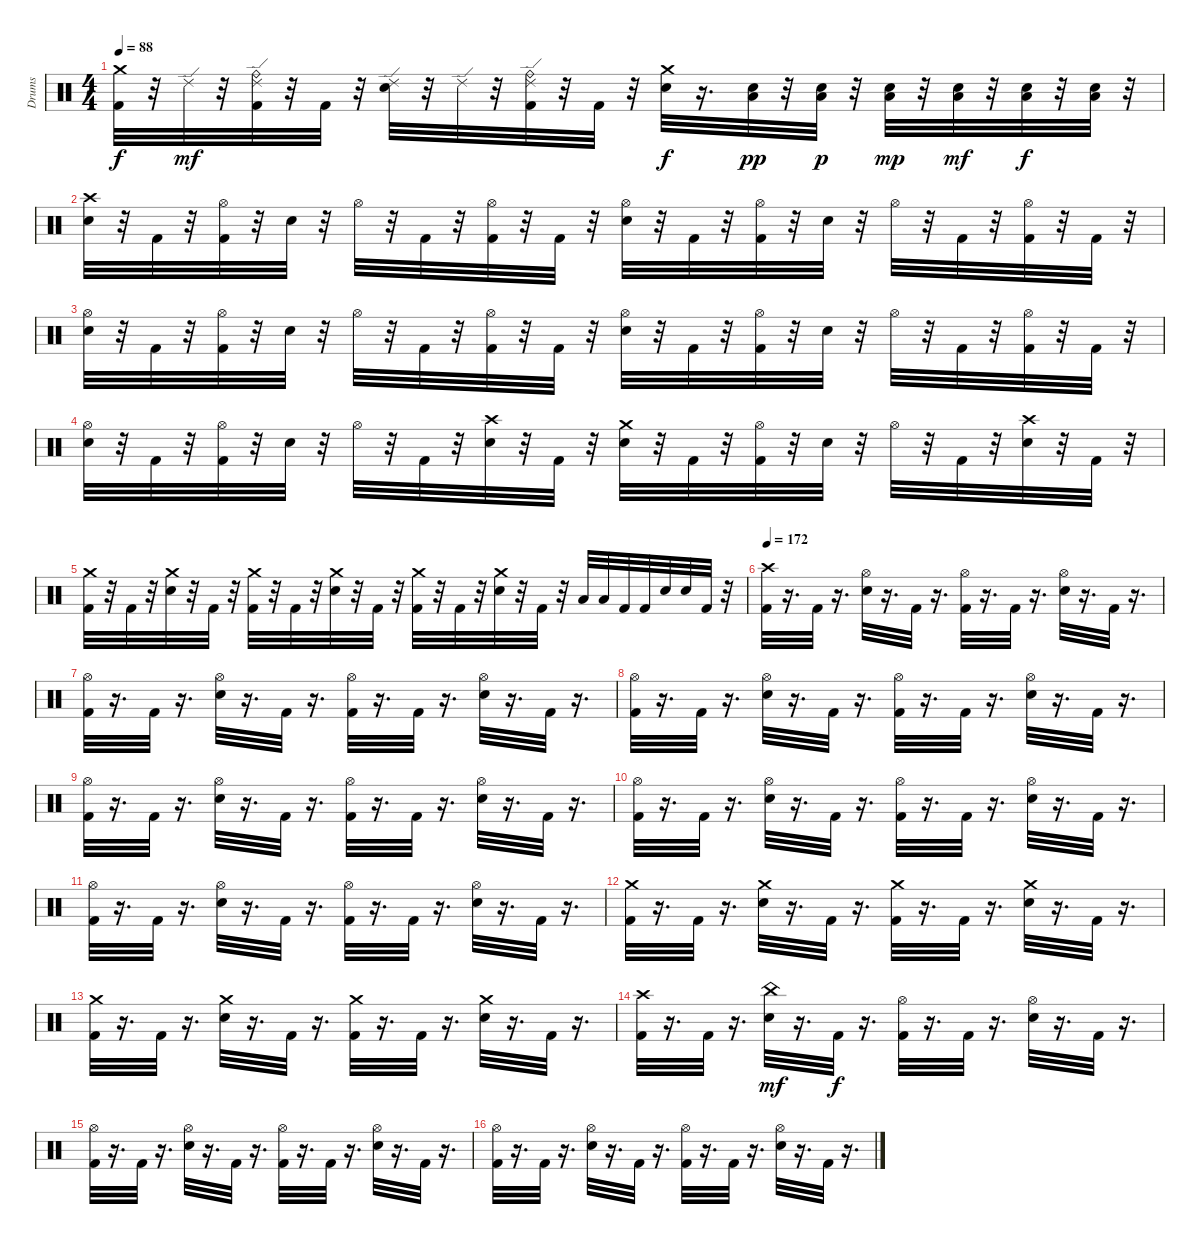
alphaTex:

\track ("Drums" "Drums") {instrument percussion}
\staff {score}
\articulation defaults
\ts (4 4)
\tempo 88
\clef neutral
\ks c
("Crash medium (hit)" "Kick (hit) 2").32{dy f} r.32 "Ride (edge) 2".32{dy mf} r.32 ("Ride (bell)" "Ride (edge) 2" "Kick (hit) 2").32 r.32 "Kick (hit) 2".32 r.32 ("Ride (edge) 2" "Snare (hit) 2").32 r.32 "Ride (edge) 2".32 r.32 ("Ride (bell)" "Ride (edge) 2" "Kick (hit) 2").32 r.32 "Kick (hit) 2".32 r.32 ("Snare (hit) 2" "Crash medium (hit)").32{dy f} r.16{d} ("Low Floor Tom (hit)" "Snare (hit) 2").32{dy pp} r.32 ("Low Floor Tom (hit)" "Snare (hit) 2").32{dy p} r.32 ("Low Floor Tom (hit)" "Snare (hit) 2").32{dy mp} r.32 ("Low Floor Tom (hit)" "Snare (hit) 2").32{dy mf} r.32 ("Low Floor Tom (hit)" "Snare (hit) 2").32{dy f} r.32 ("Low Floor Tom (hit)" "Snare (hit) 2").32 r.32 |
("Crash high (hit)" "Snare (hit) 2").32 r.32 "Kick (hit) 2".32 r.32 ("Hi-Hat (open)" "Kick (hit) 2").32 r.32 "Snare (hit) 2".32 r.32 "Hi-Hat (open)".32 r.32 "Kick (hit) 2".32 r.32 ("Kick (hit) 2" "Hi-Hat (open)").32 r.32 "Kick (hit) 2".32 r.32 ("Snare (hit) 2" "Hi-Hat (open)").32 r.32 "Kick (hit) 2".32 r.32 ("Kick (hit) 2" "Hi-Hat (open)").32 r.32 "Snare (hit) 2".32 r.32 "Hi-Hat (open)".32 r.32 "Kick (hit) 2".32 r.32 ("Kick (hit) 2" "Hi-Hat (open)").32 r.32 "Kick (hit) 2".32 r.32 |
("Hi-Hat (open)" "Snare (hit) 2").32 r.32 "Kick (hit) 2".32 r.32 ("Hi-Hat (open)" "Kick (hit) 2").32 r.32 "Snare (hit) 2".32 r.32 "Hi-Hat (open)".32 r.32 "Kick (hit) 2".32 r.32 ("Kick (hit) 2" "Hi-Hat (open)").32 r.32 "Kick (hit) 2".32 r.32 ("Snare (hit) 2" "Hi-Hat (open)").32 r.32 "Kick (hit) 2".32 r.32 ("Kick (hit) 2" "Hi-Hat (open)").32 r.32 "Snare (hit) 2".32 r.32 "Hi-Hat (open)".32 r.32 "Kick (hit) 2".32 r.32 ("Kick (hit) 2" "Hi-Hat (open)").32 r.32 "Kick (hit) 2".32 r.32 |
("Hi-Hat (open)" "Snare (hit) 2").32 r.32 "Kick (hit) 2".32 r.32 ("Hi-Hat (open)" "Kick (hit) 2").32 r.32 "Snare (hit) 2".32 r.32 "Hi-Hat (open)".32 r.32 "Kick (hit) 2".32 r.32 ("Snare (hit) 2" "Crash high (hit)").32 r.32 "Kick (hit) 2".32 r.32 ("Crash medium (hit)" "Snare (hit) 2").32 r.32 "Kick (hit) 2".32 r.32 ("Kick (hit) 2" "Hi-Hat (open)").32 r.32 "Snare (hit) 2".32 r.32 "Hi-Hat (open)".32 r.32 "Kick (hit) 2".32 r.32 ("Crash high (hit)" "Snare (hit) 2").32 r.32 "Kick (hit) 2".32 r.32 |
("Kick (hit) 2" "Crash medium (hit)").32 r.32 "Kick (hit) 2".32 r.32 ("Crash medium (hit)" "Snare (hit) 2").32 r.32 "Kick (hit) 2".32 r.32 ("Kick (hit) 2" "Crash medium (hit)").32 r.32 "Kick (hit) 2".32 r.32 ("Crash medium (hit)" "Snare (hit) 2").32 r.32 "Kick (hit) 2".32 r.32 ("Kick (hit) 2" "Crash medium (hit)").32 r.32 "Kick (hit) 2".32 r.32 ("Crash medium (hit)" "Snare (hit) 2").32 r.32 "Kick (hit) 2".32 r.32 "Low Tom (hit)".32 "Low Tom (hit)".32 "Kick (hit) 2".32 "Kick (hit) 2".32 "Snare (hit) 2".32 "Snare (hit) 2".32 "Kick (hit) 2".32 r.32 |
\tempo 172
("Crash high (hit)" "Kick (hit) 2").32 r.16{d} "Kick (hit) 2".32 r.16{d} ("Hi-Hat (open)" "Snare (hit) 2").32 r.16{d} "Kick (hit) 2".32 r.16{d} ("Hi-Hat (open)" "Kick (hit) 2").32 r.16{d} "Kick (hit) 2".32 r.16{d} ("Hi-Hat (open)" "Snare (hit) 2").32 r.16{d} "Kick (hit) 2".32 r.16{d} |
("Hi-Hat (open)" "Kick (hit) 2").32 r.16{d} "Kick (hit) 2".32 r.16{d} ("Snare (hit) 2" "Hi-Hat (open)").32 r.16{d} "Kick (hit) 2".32 r.16{d} ("Kick (hit) 2" "Hi-Hat (open)").32 r.16{d} "Kick (hit) 2".32 r.16{d} ("Snare (hit) 2" "Hi-Hat (open)").32 r.16{d} "Kick (hit) 2".32 r.16{d} |
("Hi-Hat (open)" "Kick (hit) 2").32 r.16{d} "Kick (hit) 2".32 r.16{d} ("Snare (hit) 2" "Hi-Hat (open)").32 r.16{d} "Kick (hit) 2".32 r.16{d} ("Kick (hit) 2" "Hi-Hat (open)").32 r.16{d} "Kick (hit) 2".32 r.16{d} ("Snare (hit) 2" "Hi-Hat (open)").32 r.16{d} "Kick (hit) 2".32 r.16{d} |
("Hi-Hat (open)" "Kick (hit) 2").32 r.16{d} "Kick (hit) 2".32 r.16{d} ("Snare (hit) 2" "Hi-Hat (open)").32 r.16{d} "Kick (hit) 2".32 r.16{d} ("Kick (hit) 2" "Hi-Hat (open)").32 r.16{d} "Kick (hit) 2".32 r.16{d} ("Snare (hit) 2" "Hi-Hat (open)").32 r.16{d} "Kick (hit) 2".32 r.16{d} |
("Hi-Hat (open)" "Kick (hit) 2").32 r.16{d} "Kick (hit) 2".32 r.16{d} ("Snare (hit) 2" "Hi-Hat (open)").32 r.16{d} "Kick (hit) 2".32 r.16{d} ("Kick (hit) 2" "Hi-Hat (open)").32 r.16{d} "Kick (hit) 2".32 r.16{d} ("Snare (hit) 2" "Hi-Hat (open)").32 r.16{d} "Kick (hit) 2".32 r.16{d} |
("Hi-Hat (open)" "Kick (hit) 2").32 r.16{d} "Kick (hit) 2".32 r.16{d} ("Snare (hit) 2" "Hi-Hat (open)").32 r.16{d} "Kick (hit) 2".32 r.16{d} ("Kick (hit) 2" "Hi-Hat (open)").32 r.16{d} "Kick (hit) 2".32 r.16{d} ("Snare (hit) 2" "Hi-Hat (open)").32 r.16{d} "Kick (hit) 2".32 r.16{d} |
("Crash medium (hit)" "Kick (hit) 2").32 r.16{d} "Kick (hit) 2".32 r.16{d} ("Crash medium (hit)" "Snare (hit) 2").32 r.16{d} "Kick (hit) 2".32 r.16{d} ("Crash medium (hit)" "Kick (hit) 2").32 r.16{d} "Kick (hit) 2".32 r.16{d} ("Crash medium (hit)" "Snare (hit) 2").32 r.16{d} "Kick (hit) 2".32 r.16{d} |
("Crash medium (hit)" "Kick (hit) 2").32 r.16{d} "Kick (hit) 2".32 r.16{d} ("Crash medium (hit)" "Snare (hit) 2").32 r.16{d} "Kick (hit) 2".32 r.16{d} ("Crash medium (hit)" "Kick (hit) 2").32 r.16{d} "Kick (hit) 2".32 r.16{d} ("Crash medium (hit)" "Snare (hit) 2").32 r.16{d} "Kick (hit) 2".32 r.16{d} |
("Crash high (hit)" "Kick (hit) 2").32 r.16{d} "Kick (hit) 2".32 r.16{d} ("Snare (hit) 2" "China (hit)").32{dy mf} r.16{d} "Kick (hit) 2".32{dy f} r.16{d} ("Kick (hit) 2" "Hi-Hat (open)").32 r.16{d} "Kick (hit) 2".32 r.16{d} ("Snare (hit) 2" "Hi-Hat (open)").32 r.16{d} "Kick (hit) 2".32 r.16{d} |
("Hi-Hat (open)" "Kick (hit) 2").32 r.16{d} "Kick (hit) 2".32 r.16{d} ("Snare (hit) 2" "Hi-Hat (open)").32 r.16{d} "Kick (hit) 2".32 r.16{d} ("Kick (hit) 2" "Hi-Hat (open)").32 r.16{d} "Kick (hit) 2".32 r.16{d} ("Snare (hit) 2" "Hi-Hat (open)").32 r.16{d} "Kick (hit) 2".32 r.16{d} |
("Hi-Hat (open)" "Kick (hit) 2").32 r.16{d} "Kick (hit) 2".32 r.16{d} ("Snare (hit) 2" "Hi-Hat (open)").32 r.16{d} "Kick (hit) 2".32 r.16{d} ("Kick (hit) 2" "Hi-Hat (open)").32 r.16{d} "Kick (hit) 2".32 r.16{d} ("Snare (hit) 2" "Hi-Hat (open)").32 r.16{d} "Kick (hit) 2".32 r.16{d}
